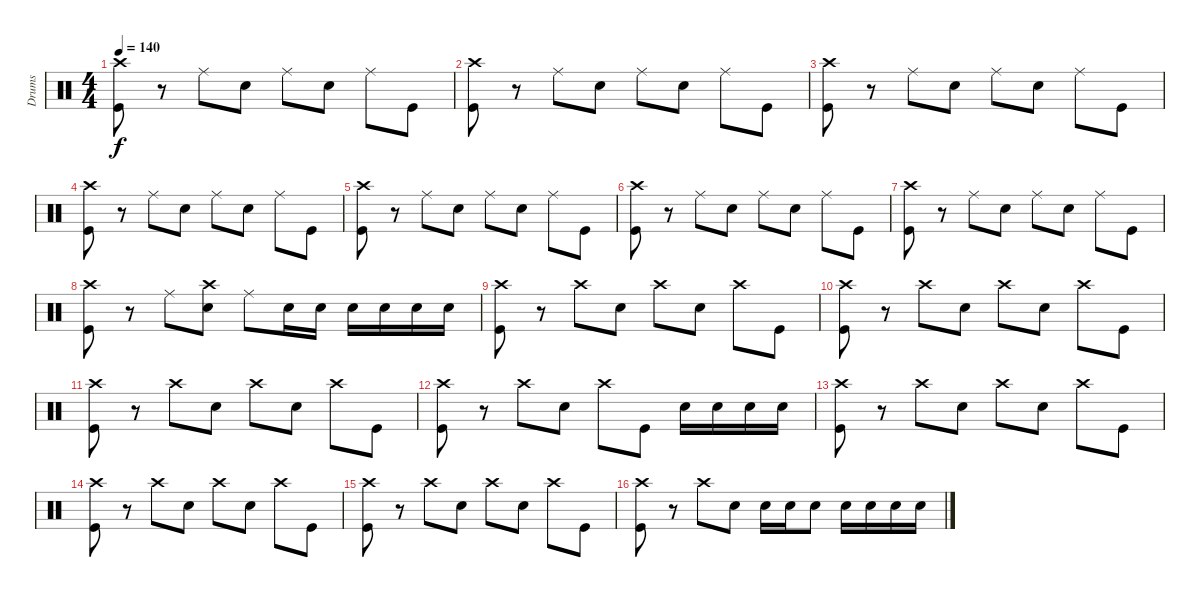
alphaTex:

\track ("Drums" "Drums") {instrument percussion}
\staff {score}
\articulation defaults
\ts (4 4)
\tempo 140
\clef neutral
\ks c
("Crash high (hit)" "Kick (hit)").8{dy f} r.8 "Ride (middle)".8 "Electric Snare (hit)".8 "Ride (middle)".8 "Electric Snare (hit)".8 "Ride (middle)".8 "Kick (hit)".8 |
("Crash high (hit)" "Kick (hit)").8 r.8 "Ride (middle)".8 "Electric Snare (hit)".8 "Ride (middle)".8 "Electric Snare (hit)".8 "Ride (middle)".8 "Kick (hit)".8 |
("Crash high (hit)" "Kick (hit)").8 r.8 "Ride (middle)".8 "Electric Snare (hit)".8 "Ride (middle)".8 "Electric Snare (hit)".8 "Ride (middle)".8 "Kick (hit)".8 |
("Crash high (hit)" "Kick (hit)").8 r.8 "Ride (middle)".8 "Electric Snare (hit)".8 "Ride (middle)".8 "Electric Snare (hit)".8 "Ride (middle)".8 "Kick (hit)".8 |
("Crash high (hit)" "Kick (hit)").8 r.8 "Ride (middle)".8 "Electric Snare (hit)".8 "Ride (middle)".8 "Electric Snare (hit)".8 "Ride (middle)".8 "Kick (hit)".8 |
("Crash high (hit)" "Kick (hit)").8 r.8 "Ride (middle)".8 "Electric Snare (hit)".8 "Ride (middle)".8 "Electric Snare (hit)".8 "Ride (middle)".8 "Kick (hit)".8 |
("Crash high (hit)" "Kick (hit)").8 r.8 "Ride (middle)".8 "Electric Snare (hit)".8 "Ride (middle)".8 "Electric Snare (hit)".8 "Ride (middle)".8 "Kick (hit)".8 |
("Crash high (hit)" "Kick (hit)").8 r.8 "Ride (middle)".8 ("Crash high (hit)" "Electric Snare (hit)").8 "Ride (middle)".8 "Electric Snare (hit)".16 "Electric Snare (hit)".16 "Electric Snare (hit)".16 "Electric Snare (hit)".16 "Electric Snare (hit)".16 "Electric Snare (hit)".16 |
("Crash high (hit)" "Kick (hit)").8 r.8 "Crash high (hit)".8 "Electric Snare (hit)".8 "Crash high (hit)".8 "Electric Snare (hit)".8 "Crash high (hit)".8 "Kick (hit)".8 |
("Crash high (hit)" "Kick (hit)").8 r.8 "Crash high (hit)".8 "Electric Snare (hit)".8 "Crash high (hit)".8 "Electric Snare (hit)".8 "Crash high (hit)".8 "Kick (hit)".8 |
("Crash high (hit)" "Kick (hit)").8 r.8 "Crash high (hit)".8 "Electric Snare (hit)".8 "Crash high (hit)".8 "Electric Snare (hit)".8 "Crash high (hit)".8 "Kick (hit)".8 |
("Crash high (hit)" "Kick (hit)").8 r.8 "Crash high (hit)".8 "Electric Snare (hit)".8 "Crash high (hit)".8 "Kick (hit)".8 "Electric Snare (hit)".16 "Electric Snare (hit)".16 "Electric Snare (hit)".16 "Electric Snare (hit)".16 |
("Crash high (hit)" "Kick (hit)").8 r.8 "Crash high (hit)".8 "Electric Snare (hit)".8 "Crash high (hit)".8 "Electric Snare (hit)".8 "Crash high (hit)".8 "Kick (hit)".8 |
("Crash high (hit)" "Kick (hit)").8 r.8 "Crash high (hit)".8 "Electric Snare (hit)".8 "Crash high (hit)".8 "Electric Snare (hit)".8 "Crash high (hit)".8 "Kick (hit)".8 |
("Crash high (hit)" "Kick (hit)").8 r.8 "Crash high (hit)".8 "Electric Snare (hit)".8 "Crash high (hit)".8 "Electric Snare (hit)".8 "Crash high (hit)".8 "Kick (hit)".8 |
("Crash high (hit)" "Kick (hit)").8 r.8 "Crash high (hit)".8 "Electric Snare (hit)".8 "Electric Snare (hit)".16 "Electric Snare (hit)".16 "Electric Snare (hit)".8 "Electric Snare (hit)".16 "Electric Snare (hit)".16 "Electric Snare (hit)".16 "Electric Snare (hit)".16
